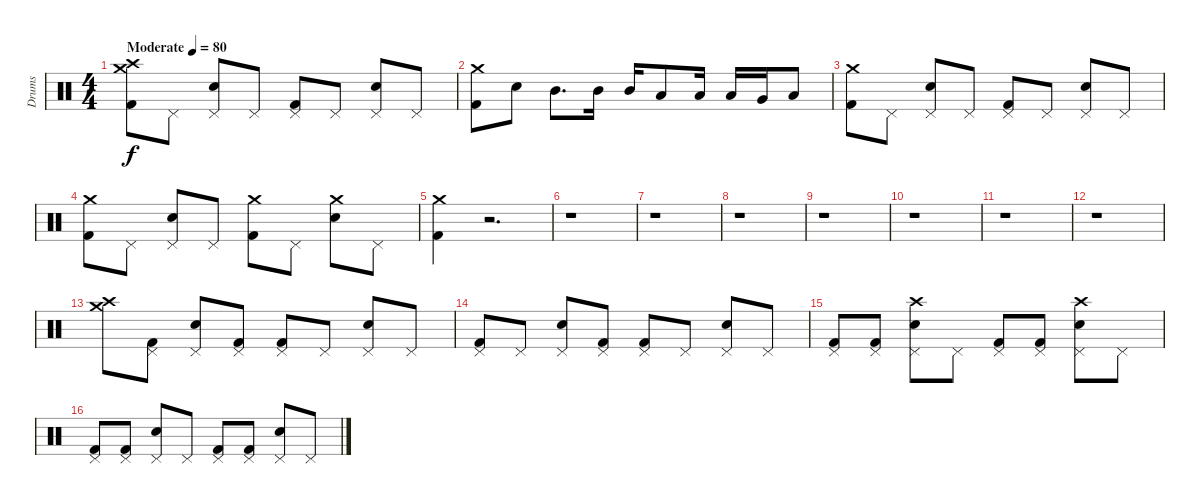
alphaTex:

\track ("Drums" "Drums") {instrument percussion}
\staff {score}
\articulation defaults
\ts (4 4)
\tempo (80 "Moderate")
\clef neutral
\ks c
("Kick (hit) 2" "Crash medium (hit)" "Crash high (hit)").8{dy f} "Pedal Hi-Hat (hit)".8 ("Pedal Hi-Hat (hit)" "Snare (hit) 2").8 "Pedal Hi-Hat (hit)".8 ("Pedal Hi-Hat (hit)" "Kick (hit) 2").8 "Pedal Hi-Hat (hit)".8 ("Pedal Hi-Hat (hit)" "Snare (hit) 2").8 "Pedal Hi-Hat (hit)".8 |
("Crash medium (hit)" "Kick (hit) 2").8 "Snare (hit) 2".8 "Mid Tom (hit)".8{d} "Mid Tom (hit)".16 "Mid Tom (hit)".16 "Low Tom (hit)".8 "Low Tom (hit)".16 "Low Tom (hit)".16 "Very Low Tom (hit)".16 "Low Floor Tom (hit)".8 |
("Crash medium (hit)" "Kick (hit) 2").8 "Pedal Hi-Hat (hit)".8 ("Pedal Hi-Hat (hit)" "Snare (hit) 2").8 "Pedal Hi-Hat (hit)".8 ("Pedal Hi-Hat (hit)" "Kick (hit) 2").8 "Pedal Hi-Hat (hit)".8 ("Pedal Hi-Hat (hit)" "Snare (hit) 2").8 "Pedal Hi-Hat (hit)".8 |
("Crash medium (hit)" "Kick (hit) 2").8 "Pedal Hi-Hat (hit)".8 ("Pedal Hi-Hat (hit)" "Snare (hit) 2").8 "Pedal Hi-Hat (hit)".8 ("Crash medium (hit)" "Kick (hit) 2").8 "Pedal Hi-Hat (hit)".8 ("Crash medium (hit)" "Snare (hit) 2").8 "Pedal Hi-Hat (hit)".8 |
("Kick (hit) 2" "Crash medium (hit)").4 r.2{d} |
r.1 |
r.1 |
r.1 |
r.1 |
r.1 |
r.1 |
r.1 |
("Crash medium (hit)" "Crash high (hit)").8 ("Pedal Hi-Hat (hit)" "Kick (hit) 2").8 ("Pedal Hi-Hat (hit)" "Snare (hit) 2").8 ("Pedal Hi-Hat (hit)" "Kick (hit) 2").8 ("Pedal Hi-Hat (hit)" "Kick (hit) 2").8 "Pedal Hi-Hat (hit)".8 ("Pedal Hi-Hat (hit)" "Snare (hit) 2").8 "Pedal Hi-Hat (hit)".8 |
("Pedal Hi-Hat (hit)" "Kick (hit) 2").8 "Pedal Hi-Hat (hit)".8 ("Pedal Hi-Hat (hit)" "Snare (hit) 2").8 ("Pedal Hi-Hat (hit)" "Kick (hit) 2").8 ("Pedal Hi-Hat (hit)" "Kick (hit) 2").8 "Pedal Hi-Hat (hit)".8 ("Pedal Hi-Hat (hit)" "Snare (hit) 2").8 "Pedal Hi-Hat (hit)".8 |
("Pedal Hi-Hat (hit)" "Kick (hit) 2").8 ("Pedal Hi-Hat (hit)" "Kick (hit) 2").8 ("Pedal Hi-Hat (hit)" "Crash high (hit)" "Snare (hit) 2").8 "Pedal Hi-Hat (hit)".8 ("Pedal Hi-Hat (hit)" "Kick (hit) 2").8 ("Pedal Hi-Hat (hit)" "Kick (hit) 2").8 ("Pedal Hi-Hat (hit)" "Crash high (hit)" "Snare (hit) 2").8 "Pedal Hi-Hat (hit)".8 |
("Pedal Hi-Hat (hit)" "Kick (hit) 2").8 ("Pedal Hi-Hat (hit)" "Kick (hit) 2").8 ("Pedal Hi-Hat (hit)" "Snare (hit) 2").8 "Pedal Hi-Hat (hit)".8 ("Pedal Hi-Hat (hit)" "Kick (hit) 2").8 ("Pedal Hi-Hat (hit)" "Kick (hit) 2").8 ("Pedal Hi-Hat (hit)" "Snare (hit) 2").8 "Pedal Hi-Hat (hit)".8
